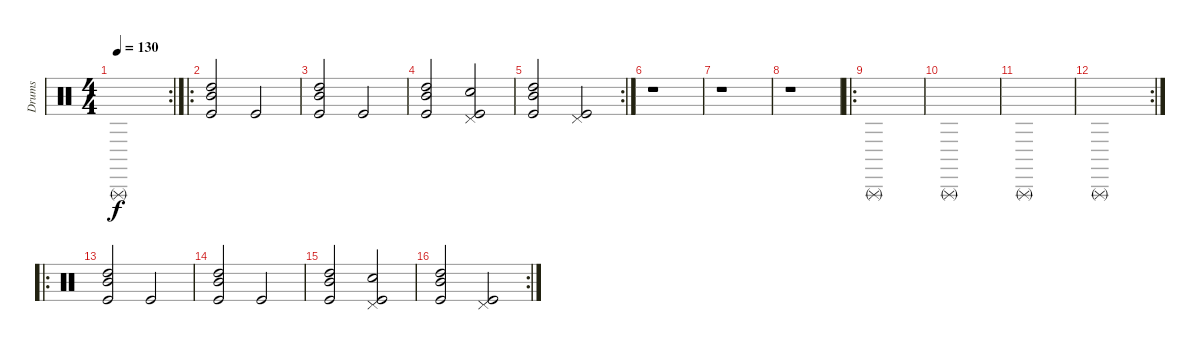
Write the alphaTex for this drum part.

\track ("Drums" "Drums") {instrument percussion}
\staff {score}
\articulation defaults
\rc 2
\ts (4 4)
\tempo 130
\clef neutral
\ks c "Triangle (rnute)".1{dy f}
|
\ro
("High Tom (hit)" "Mid Tom (hit)" "Kick (hit)").2 "Kick (hit)".2 |
("High Tom (hit)" "Mid Tom (hit)" "Kick (hit)").2 "Kick (hit)".2 |
("High Tom (hit)" "Mid Tom (hit)" "Kick (hit)").2 ("Pedal Hi-Hat (hit)" "Snare (hit) 2" "Kick (hit)").2 |
\rc 2
("High Tom (hit)" "Mid Tom (hit)" "Kick (hit)").2 ("Pedal Hi-Hat (hit)" "Kick (hit)").2 |
r.1 |
r.1 |
r.1 |
\ro "Triangle (rnute)".1
|
"Triangle (rnute)".1 |
"Triangle (rnute)".1 |
\rc 2 "Triangle (rnute)".1
|
\ro
("High Tom (hit)" "Mid Tom (hit)" "Kick (hit)").2 "Kick (hit)".2 |
("High Tom (hit)" "Mid Tom (hit)" "Kick (hit)").2 "Kick (hit)".2 |
("High Tom (hit)" "Mid Tom (hit)" "Kick (hit)").2 ("Pedal Hi-Hat (hit)" "Snare (hit) 2" "Kick (hit)").2 |
\rc 2
("High Tom (hit)" "Mid Tom (hit)" "Kick (hit)").2 ("Pedal Hi-Hat (hit)" "Kick (hit)").2
